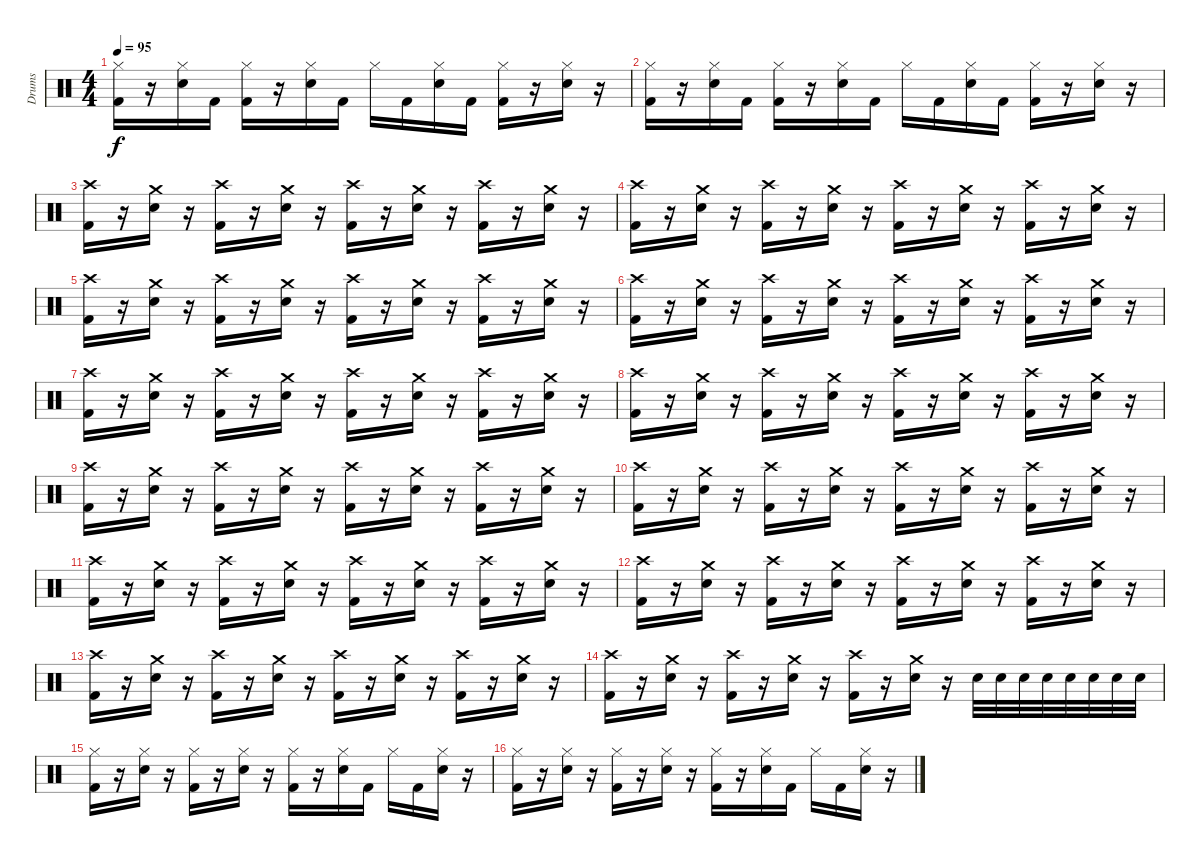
\track ("Drums" "Drums") {instrument percussion}
\staff {score}
\articulation defaults
\ts (4 4)
\tempo 95
\clef neutral
\ks c
("Hi-Hat (closed)" "Kick (hit) 2").16{dy f} r.16 ("Hi-Hat (closed)" "Snare (hit) 2").16 "Kick (hit) 2".16 ("Hi-Hat (closed)" "Kick (hit) 2").16 r.16 ("Hi-Hat (closed)" "Snare (hit) 2").16 "Kick (hit) 2".16 "Hi-Hat (closed)".16 "Kick (hit) 2".16 ("Hi-Hat (closed)" "Snare (hit) 2").16 "Kick (hit) 2".16 ("Hi-Hat (closed)" "Kick (hit) 2").16 r.16 ("Hi-Hat (closed)" "Snare (hit) 2").16 r.16 |
("Hi-Hat (closed)" "Kick (hit) 2").16 r.16 ("Hi-Hat (closed)" "Snare (hit) 2").16 "Kick (hit) 2".16 ("Hi-Hat (closed)" "Kick (hit) 2").16 r.16 ("Hi-Hat (closed)" "Snare (hit) 2").16 "Kick (hit) 2".16 "Hi-Hat (closed)".16 "Kick (hit) 2".16 ("Hi-Hat (closed)" "Snare (hit) 2").16 "Kick (hit) 2".16 ("Hi-Hat (closed)" "Kick (hit) 2").16 r.16 ("Hi-Hat (closed)" "Snare (hit) 2").16 r.16 |
("Crash high (hit)" "Kick (hit) 2").16 r.16 ("Crash medium (hit)" "Snare (hit) 2").16 r.16 ("Crash high (hit)" "Kick (hit) 2").16 r.16 ("Crash medium (hit)" "Snare (hit) 2").16 r.16 ("Crash high (hit)" "Kick (hit) 2").16 r.16 ("Crash medium (hit)" "Snare (hit) 2").16 r.16 ("Crash high (hit)" "Kick (hit) 2").16 r.16 ("Crash medium (hit)" "Snare (hit) 2").16 r.16 |
("Crash high (hit)" "Kick (hit) 2").16 r.16 ("Crash medium (hit)" "Snare (hit) 2").16 r.16 ("Crash high (hit)" "Kick (hit) 2").16 r.16 ("Crash medium (hit)" "Snare (hit) 2").16 r.16 ("Crash high (hit)" "Kick (hit) 2").16 r.16 ("Crash medium (hit)" "Snare (hit) 2").16 r.16 ("Crash high (hit)" "Kick (hit) 2").16 r.16 ("Crash medium (hit)" "Snare (hit) 2").16 r.16 |
("Crash high (hit)" "Kick (hit) 2").16 r.16 ("Crash medium (hit)" "Snare (hit) 2").16 r.16 ("Crash high (hit)" "Kick (hit) 2").16 r.16 ("Crash medium (hit)" "Snare (hit) 2").16 r.16 ("Crash high (hit)" "Kick (hit) 2").16 r.16 ("Crash medium (hit)" "Snare (hit) 2").16 r.16 ("Crash high (hit)" "Kick (hit) 2").16 r.16 ("Crash medium (hit)" "Snare (hit) 2").16 r.16 |
("Crash high (hit)" "Kick (hit) 2").16 r.16 ("Crash medium (hit)" "Snare (hit) 2").16 r.16 ("Crash high (hit)" "Kick (hit) 2").16 r.16 ("Crash medium (hit)" "Snare (hit) 2").16 r.16 ("Crash high (hit)" "Kick (hit) 2").16 r.16 ("Crash medium (hit)" "Snare (hit) 2").16 r.16 ("Crash high (hit)" "Kick (hit) 2").16 r.16 ("Crash medium (hit)" "Snare (hit) 2").16 r.16 |
("Crash high (hit)" "Kick (hit) 2").16 r.16 ("Crash medium (hit)" "Snare (hit) 2").16 r.16 ("Crash high (hit)" "Kick (hit) 2").16 r.16 ("Crash medium (hit)" "Snare (hit) 2").16 r.16 ("Crash high (hit)" "Kick (hit) 2").16 r.16 ("Crash medium (hit)" "Snare (hit) 2").16 r.16 ("Crash high (hit)" "Kick (hit) 2").16 r.16 ("Crash medium (hit)" "Snare (hit) 2").16 r.16 |
("Crash high (hit)" "Kick (hit) 2").16 r.16 ("Crash medium (hit)" "Snare (hit) 2").16 r.16 ("Crash high (hit)" "Kick (hit) 2").16 r.16 ("Crash medium (hit)" "Snare (hit) 2").16 r.16 ("Crash high (hit)" "Kick (hit) 2").16 r.16 ("Crash medium (hit)" "Snare (hit) 2").16 r.16 ("Crash high (hit)" "Kick (hit) 2").16 r.16 ("Crash medium (hit)" "Snare (hit) 2").16 r.16 |
("Crash high (hit)" "Kick (hit) 2").16 r.16 ("Crash medium (hit)" "Snare (hit) 2").16 r.16 ("Crash high (hit)" "Kick (hit) 2").16 r.16 ("Crash medium (hit)" "Snare (hit) 2").16 r.16 ("Crash high (hit)" "Kick (hit) 2").16 r.16 ("Crash medium (hit)" "Snare (hit) 2").16 r.16 ("Crash high (hit)" "Kick (hit) 2").16 r.16 ("Crash medium (hit)" "Snare (hit) 2").16 r.16 |
("Crash high (hit)" "Kick (hit) 2").16 r.16 ("Crash medium (hit)" "Snare (hit) 2").16 r.16 ("Crash high (hit)" "Kick (hit) 2").16 r.16 ("Crash medium (hit)" "Snare (hit) 2").16 r.16 ("Crash high (hit)" "Kick (hit) 2").16 r.16 ("Crash medium (hit)" "Snare (hit) 2").16 r.16 ("Crash high (hit)" "Kick (hit) 2").16 r.16 ("Crash medium (hit)" "Snare (hit) 2").16 r.16 |
("Crash high (hit)" "Kick (hit) 2").16 r.16 ("Crash medium (hit)" "Snare (hit) 2").16 r.16 ("Crash high (hit)" "Kick (hit) 2").16 r.16 ("Crash medium (hit)" "Snare (hit) 2").16 r.16 ("Crash high (hit)" "Kick (hit) 2").16 r.16 ("Crash medium (hit)" "Snare (hit) 2").16 r.16 ("Crash high (hit)" "Kick (hit) 2").16 r.16 ("Crash medium (hit)" "Snare (hit) 2").16 r.16 |
("Crash high (hit)" "Kick (hit) 2").16 r.16 ("Crash medium (hit)" "Snare (hit) 2").16 r.16 ("Crash high (hit)" "Kick (hit) 2").16 r.16 ("Crash medium (hit)" "Snare (hit) 2").16 r.16 ("Crash high (hit)" "Kick (hit) 2").16 r.16 ("Crash medium (hit)" "Snare (hit) 2").16 r.16 ("Crash high (hit)" "Kick (hit) 2").16 r.16 ("Crash medium (hit)" "Snare (hit) 2").16 r.16 |
("Crash high (hit)" "Kick (hit) 2").16 r.16 ("Crash medium (hit)" "Snare (hit) 2").16 r.16 ("Crash high (hit)" "Kick (hit) 2").16 r.16 ("Crash medium (hit)" "Snare (hit) 2").16 r.16 ("Crash high (hit)" "Kick (hit) 2").16 r.16 ("Crash medium (hit)" "Snare (hit) 2").16 r.16 ("Crash high (hit)" "Kick (hit) 2").16 r.16 ("Crash medium (hit)" "Snare (hit) 2").16 r.16 |
("Crash high (hit)" "Kick (hit) 2").16 r.16 ("Crash medium (hit)" "Snare (hit) 2").16 r.16 ("Crash high (hit)" "Kick (hit) 2").16 r.16 ("Crash medium (hit)" "Snare (hit) 2").16 r.16 ("Crash high (hit)" "Kick (hit) 2").16 r.16 ("Crash medium (hit)" "Snare (hit) 2").16 r.16 "Snare (hit) 2".32 "Snare (hit) 2".32 "Snare (hit) 2".32 "Snare (hit) 2".32 "Snare (hit) 2".32 "Snare (hit) 2".32 "Snare (hit) 2".32 "Snare (hit) 2".32 |
("Hi-Hat (closed)" "Kick (hit) 2").16 r.16 ("Hi-Hat (closed)" "Snare (hit) 2").16 r.16 ("Hi-Hat (closed)" "Kick (hit) 2").16 r.16 ("Hi-Hat (closed)" "Snare (hit) 2").16 r.16 ("Hi-Hat (closed)" "Kick (hit) 2").16 r.16 ("Hi-Hat (closed)" "Snare (hit) 2").16 "Kick (hit) 2".16 "Hi-Hat (closed)".16 "Kick (hit) 2".16 ("Hi-Hat (closed)" "Snare (hit) 2").16 r.16 |
("Hi-Hat (closed)" "Kick (hit) 2").16 r.16 ("Hi-Hat (closed)" "Snare (hit) 2").16 r.16 ("Hi-Hat (closed)" "Kick (hit) 2").16 r.16 ("Hi-Hat (closed)" "Snare (hit) 2").16 r.16 ("Hi-Hat (closed)" "Kick (hit) 2").16 r.16 ("Hi-Hat (closed)" "Snare (hit) 2").16 "Kick (hit) 2".16 "Hi-Hat (closed)".16 "Kick (hit) 2".16 ("Hi-Hat (closed)" "Snare (hit) 2").16 r.16
